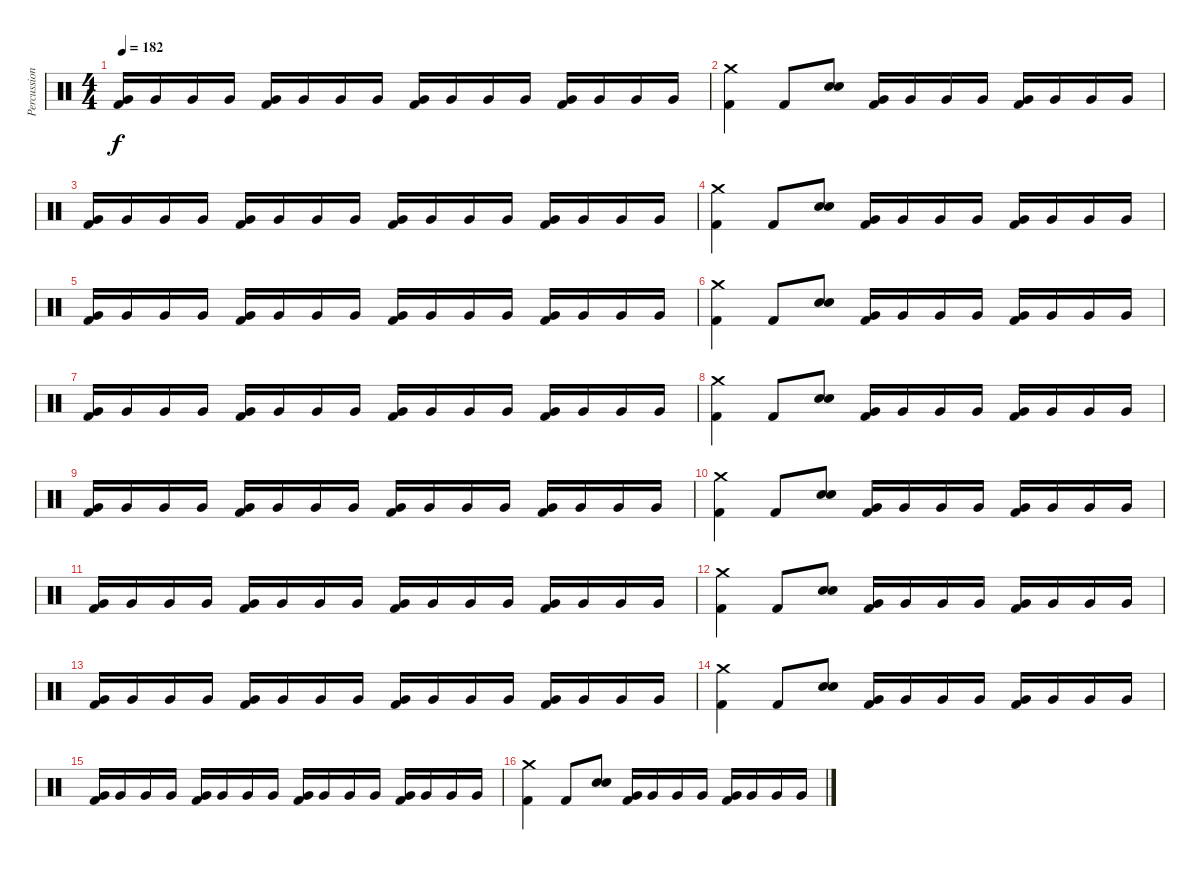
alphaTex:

\track ("Percussion" "Percussion") {instrument percussion}
\staff {score}
\articulation defaults
\ts (4 4)
\tempo 182
\clef neutral
\ks c
("Very Low Tom (hit)" "Kick (hit) 2").16{dy f} "Very Low Tom (hit)".16 "Very Low Tom (hit)".16 "Very Low Tom (hit)".16 ("Very Low Tom (hit)" "Kick (hit) 2").16 "Very Low Tom (hit)".16 "Very Low Tom (hit)".16 "Very Low Tom (hit)".16 ("Very Low Tom (hit)" "Kick (hit) 2").16 "Very Low Tom (hit)".16 "Very Low Tom (hit)".16 "Very Low Tom (hit)".16 ("Very Low Tom (hit)" "Kick (hit) 2").16 "Very Low Tom (hit)".16 "Very Low Tom (hit)".16 "Very Low Tom (hit)".16 |
("Crash medium (hit)" "Kick (hit) 2").4 "Kick (hit) 2".8 ("Electric Snare (hit)" "Electric Snare (hit)").8 ("Very Low Tom (hit)" "Kick (hit) 2").16 "Very Low Tom (hit)".16 "Very Low Tom (hit)".16 "Very Low Tom (hit)".16 ("Very Low Tom (hit)" "Kick (hit) 2").16 "Very Low Tom (hit)".16 "Very Low Tom (hit)".16 "Very Low Tom (hit)".16 |
("Very Low Tom (hit)" "Kick (hit) 2").16 "Very Low Tom (hit)".16 "Very Low Tom (hit)".16 "Very Low Tom (hit)".16 ("Very Low Tom (hit)" "Kick (hit) 2").16 "Very Low Tom (hit)".16 "Very Low Tom (hit)".16 "Very Low Tom (hit)".16 ("Very Low Tom (hit)" "Kick (hit) 2").16 "Very Low Tom (hit)".16 "Very Low Tom (hit)".16 "Very Low Tom (hit)".16 ("Very Low Tom (hit)" "Kick (hit) 2").16 "Very Low Tom (hit)".16 "Very Low Tom (hit)".16 "Very Low Tom (hit)".16 |
("Crash medium (hit)" "Kick (hit) 2").4 "Kick (hit) 2".8 ("Electric Snare (hit)" "Electric Snare (hit)").8 ("Very Low Tom (hit)" "Kick (hit) 2").16 "Very Low Tom (hit)".16 "Very Low Tom (hit)".16 "Very Low Tom (hit)".16 ("Very Low Tom (hit)" "Kick (hit) 2").16 "Very Low Tom (hit)".16 "Very Low Tom (hit)".16 "Very Low Tom (hit)".16 |
("Very Low Tom (hit)" "Kick (hit) 2").16 "Very Low Tom (hit)".16 "Very Low Tom (hit)".16 "Very Low Tom (hit)".16 ("Very Low Tom (hit)" "Kick (hit) 2").16 "Very Low Tom (hit)".16 "Very Low Tom (hit)".16 "Very Low Tom (hit)".16 ("Very Low Tom (hit)" "Kick (hit) 2").16 "Very Low Tom (hit)".16 "Very Low Tom (hit)".16 "Very Low Tom (hit)".16 ("Very Low Tom (hit)" "Kick (hit) 2").16 "Very Low Tom (hit)".16 "Very Low Tom (hit)".16 "Very Low Tom (hit)".16 |
("Crash medium (hit)" "Kick (hit) 2").4 "Kick (hit) 2".8 ("Electric Snare (hit)" "Electric Snare (hit)").8 ("Very Low Tom (hit)" "Kick (hit) 2").16 "Very Low Tom (hit)".16 "Very Low Tom (hit)".16 "Very Low Tom (hit)".16 ("Very Low Tom (hit)" "Kick (hit) 2").16 "Very Low Tom (hit)".16 "Very Low Tom (hit)".16 "Very Low Tom (hit)".16 |
("Very Low Tom (hit)" "Kick (hit) 2").16 "Very Low Tom (hit)".16 "Very Low Tom (hit)".16 "Very Low Tom (hit)".16 ("Very Low Tom (hit)" "Kick (hit) 2").16 "Very Low Tom (hit)".16 "Very Low Tom (hit)".16 "Very Low Tom (hit)".16 ("Very Low Tom (hit)" "Kick (hit) 2").16 "Very Low Tom (hit)".16 "Very Low Tom (hit)".16 "Very Low Tom (hit)".16 ("Very Low Tom (hit)" "Kick (hit) 2").16 "Very Low Tom (hit)".16 "Very Low Tom (hit)".16 "Very Low Tom (hit)".16 |
("Crash medium (hit)" "Kick (hit) 2").4 "Kick (hit) 2".8 ("Electric Snare (hit)" "Electric Snare (hit)").8 ("Very Low Tom (hit)" "Kick (hit) 2").16 "Very Low Tom (hit)".16 "Very Low Tom (hit)".16 "Very Low Tom (hit)".16 ("Very Low Tom (hit)" "Kick (hit) 2").16 "Very Low Tom (hit)".16 "Very Low Tom (hit)".16 "Very Low Tom (hit)".16 |
("Very Low Tom (hit)" "Kick (hit) 2").16 "Very Low Tom (hit)".16 "Very Low Tom (hit)".16 "Very Low Tom (hit)".16 ("Very Low Tom (hit)" "Kick (hit) 2").16 "Very Low Tom (hit)".16 "Very Low Tom (hit)".16 "Very Low Tom (hit)".16 ("Very Low Tom (hit)" "Kick (hit) 2").16 "Very Low Tom (hit)".16 "Very Low Tom (hit)".16 "Very Low Tom (hit)".16 ("Very Low Tom (hit)" "Kick (hit) 2").16 "Very Low Tom (hit)".16 "Very Low Tom (hit)".16 "Very Low Tom (hit)".16 |
("Crash medium (hit)" "Kick (hit) 2").4 "Kick (hit) 2".8 ("Electric Snare (hit)" "Electric Snare (hit)").8 ("Very Low Tom (hit)" "Kick (hit) 2").16 "Very Low Tom (hit)".16 "Very Low Tom (hit)".16 "Very Low Tom (hit)".16 ("Very Low Tom (hit)" "Kick (hit) 2").16 "Very Low Tom (hit)".16 "Very Low Tom (hit)".16 "Very Low Tom (hit)".16 |
("Very Low Tom (hit)" "Kick (hit) 2").16 "Very Low Tom (hit)".16 "Very Low Tom (hit)".16 "Very Low Tom (hit)".16 ("Very Low Tom (hit)" "Kick (hit) 2").16 "Very Low Tom (hit)".16 "Very Low Tom (hit)".16 "Very Low Tom (hit)".16 ("Very Low Tom (hit)" "Kick (hit) 2").16 "Very Low Tom (hit)".16 "Very Low Tom (hit)".16 "Very Low Tom (hit)".16 ("Very Low Tom (hit)" "Kick (hit) 2").16 "Very Low Tom (hit)".16 "Very Low Tom (hit)".16 "Very Low Tom (hit)".16 |
("Crash medium (hit)" "Kick (hit) 2").4 "Kick (hit) 2".8 ("Electric Snare (hit)" "Electric Snare (hit)").8 ("Very Low Tom (hit)" "Kick (hit) 2").16 "Very Low Tom (hit)".16 "Very Low Tom (hit)".16 "Very Low Tom (hit)".16 ("Very Low Tom (hit)" "Kick (hit) 2").16 "Very Low Tom (hit)".16 "Very Low Tom (hit)".16 "Very Low Tom (hit)".16 |
("Very Low Tom (hit)" "Kick (hit) 2").16 "Very Low Tom (hit)".16 "Very Low Tom (hit)".16 "Very Low Tom (hit)".16 ("Very Low Tom (hit)" "Kick (hit) 2").16 "Very Low Tom (hit)".16 "Very Low Tom (hit)".16 "Very Low Tom (hit)".16 ("Very Low Tom (hit)" "Kick (hit) 2").16 "Very Low Tom (hit)".16 "Very Low Tom (hit)".16 "Very Low Tom (hit)".16 ("Very Low Tom (hit)" "Kick (hit) 2").16 "Very Low Tom (hit)".16 "Very Low Tom (hit)".16 "Very Low Tom (hit)".16 |
("Crash medium (hit)" "Kick (hit) 2").4 "Kick (hit) 2".8 ("Electric Snare (hit)" "Electric Snare (hit)").8 ("Very Low Tom (hit)" "Kick (hit) 2").16 "Very Low Tom (hit)".16 "Very Low Tom (hit)".16 "Very Low Tom (hit)".16 ("Very Low Tom (hit)" "Kick (hit) 2").16 "Very Low Tom (hit)".16 "Very Low Tom (hit)".16 "Very Low Tom (hit)".16 |
("Very Low Tom (hit)" "Kick (hit) 2").16 "Very Low Tom (hit)".16 "Very Low Tom (hit)".16 "Very Low Tom (hit)".16 ("Very Low Tom (hit)" "Kick (hit) 2").16 "Very Low Tom (hit)".16 "Very Low Tom (hit)".16 "Very Low Tom (hit)".16 ("Very Low Tom (hit)" "Kick (hit) 2").16 "Very Low Tom (hit)".16 "Very Low Tom (hit)".16 "Very Low Tom (hit)".16 ("Very Low Tom (hit)" "Kick (hit) 2").16 "Very Low Tom (hit)".16 "Very Low Tom (hit)".16 "Very Low Tom (hit)".16 |
("Crash medium (hit)" "Kick (hit) 2").4 "Kick (hit) 2".8 ("Electric Snare (hit)" "Electric Snare (hit)").8 ("Very Low Tom (hit)" "Kick (hit) 2").16 "Very Low Tom (hit)".16 "Very Low Tom (hit)".16 "Very Low Tom (hit)".16 ("Very Low Tom (hit)" "Kick (hit) 2").16 "Very Low Tom (hit)".16 "Very Low Tom (hit)".16 "Very Low Tom (hit)".16
